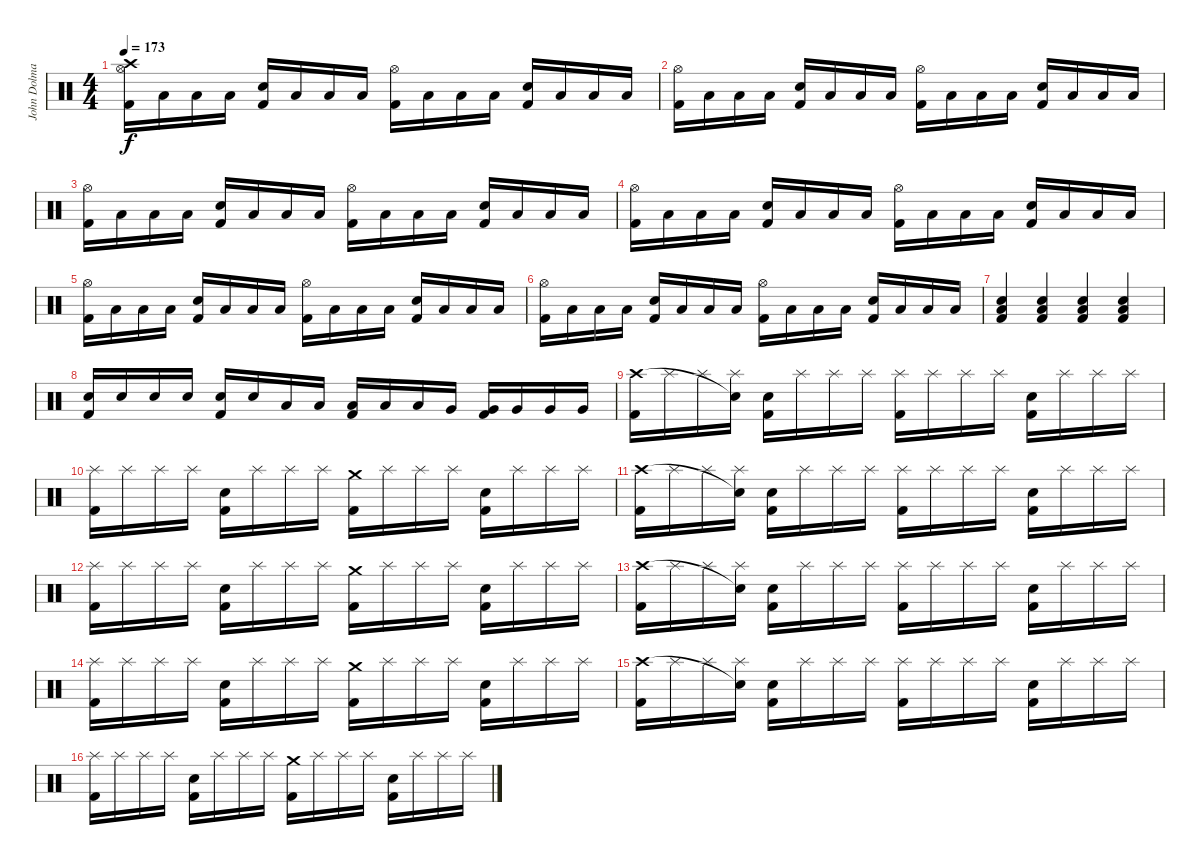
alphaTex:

\track ("John Dolmayan" "John Dolma") {instrument percussion}
\staff {score}
\articulation defaults
\ts (4 4)
\tempo 173
\clef neutral
\ks c
("Hi-Hat (open)" "Kick (hit) 2" "Crash high (hit)").16{dy f} "Low Tom (hit)".16 "Low Tom (hit)".16 "Low Tom (hit)".16 ("Electric Snare (hit)" "Kick (hit) 2").16 "Low Tom (hit)".16 "Low Tom (hit)".16 "Low Tom (hit)".16 ("Hi-Hat (open)" "Kick (hit) 2").16 "Low Tom (hit)".16 "Low Tom (hit)".16 "Low Tom (hit)".16 ("Electric Snare (hit)" "Kick (hit) 2").16 "Low Tom (hit)".16 "Low Tom (hit)".16 "Low Tom (hit)".16 |
("Hi-Hat (open)" "Kick (hit) 2").16 "Low Tom (hit)".16 "Low Tom (hit)".16 "Low Tom (hit)".16 ("Electric Snare (hit)" "Kick (hit) 2").16 "Low Tom (hit)".16 "Low Tom (hit)".16 "Low Tom (hit)".16 ("Hi-Hat (open)" "Kick (hit) 2").16 "Low Tom (hit)".16 "Low Tom (hit)".16 "Low Tom (hit)".16 ("Electric Snare (hit)" "Kick (hit) 2").16 "Low Tom (hit)".16 "Low Tom (hit)".16 "Low Tom (hit)".16 |
("Hi-Hat (open)" "Kick (hit) 2").16 "Low Tom (hit)".16 "Low Tom (hit)".16 "Low Tom (hit)".16 ("Electric Snare (hit)" "Kick (hit) 2").16 "Low Tom (hit)".16 "Low Tom (hit)".16 "Low Tom (hit)".16 ("Hi-Hat (open)" "Kick (hit) 2").16 "Low Tom (hit)".16 "Low Tom (hit)".16 "Low Tom (hit)".16 ("Electric Snare (hit)" "Kick (hit) 2").16 "Low Tom (hit)".16 "Low Tom (hit)".16 "Low Tom (hit)".16 |
("Hi-Hat (open)" "Kick (hit) 2").16 "Low Tom (hit)".16 "Low Tom (hit)".16 "Low Tom (hit)".16 ("Electric Snare (hit)" "Kick (hit) 2").16 "Low Tom (hit)".16 "Low Tom (hit)".16 "Low Tom (hit)".16 ("Hi-Hat (open)" "Kick (hit) 2").16 "Low Tom (hit)".16 "Low Tom (hit)".16 "Low Tom (hit)".16 ("Electric Snare (hit)" "Kick (hit) 2").16 "Low Tom (hit)".16 "Low Tom (hit)".16 "Low Tom (hit)".16 |
("Hi-Hat (open)" "Kick (hit) 2").16 "Low Tom (hit)".16 "Low Tom (hit)".16 "Low Tom (hit)".16 ("Electric Snare (hit)" "Kick (hit) 2").16 "Low Tom (hit)".16 "Low Tom (hit)".16 "Low Tom (hit)".16 ("Hi-Hat (open)" "Kick (hit) 2").16 "Low Tom (hit)".16 "Low Tom (hit)".16 "Low Tom (hit)".16 ("Electric Snare (hit)" "Kick (hit) 2").16 "Low Tom (hit)".16 "Low Tom (hit)".16 "Low Tom (hit)".16 |
("Hi-Hat (open)" "Kick (hit) 2").16 "Low Tom (hit)".16 "Low Tom (hit)".16 "Low Tom (hit)".16 ("Electric Snare (hit)" "Kick (hit) 2").16 "Low Tom (hit)".16 "Low Tom (hit)".16 "Low Tom (hit)".16 ("Hi-Hat (open)" "Kick (hit) 2").16 "Low Tom (hit)".16 "Low Tom (hit)".16 "Low Tom (hit)".16 ("Electric Snare (hit)" "Kick (hit) 2").16 "Low Tom (hit)".16 "Low Tom (hit)".16 "Low Tom (hit)".16 |
("Kick (hit) 2" "Low Tom (hit)" "Electric Snare (hit)").4 ("Kick (hit) 2" "Low Tom (hit)" "Electric Snare (hit)").4 ("Kick (hit) 2" "Low Tom (hit)" "Electric Snare (hit)").4 ("Kick (hit) 2" "Low Tom (hit)" "Electric Snare (hit)").4 |
("Electric Snare (hit)" "Kick (hit) 2").16 "Electric Snare (hit)".16 "Electric Snare (hit)".16 "Electric Snare (hit)".16 ("Electric Snare (hit)" "Kick (hit) 2").16 "Electric Snare (hit)".16 "Low Tom (hit)".16 "Low Tom (hit)".16 ("Kick (hit) 2" "Low Tom (hit)").16 "Low Tom (hit)".16 "Low Tom (hit)".16 "Very Low Tom (hit)".16 ("Kick (hit) 2" "Very Low Tom (hit)").16 "Very Low Tom (hit)".16 "Very Low Tom (hit)".16 "Very Low Tom (hit)".16 |
("Kick (hit) 2" "Crash high (hit)").16 "Splash (hit)".16 "Splash (hit)".16 ("Splash (hit)" "Snare (hit)"{t}).16 ("Electric Snare (hit)" "Kick (hit) 2").16 "Splash (hit)".16 "Splash (hit)".16 "Splash (hit)".16 ("Kick (hit) 2" "Splash (hit)").16 "Splash (hit)".16 "Splash (hit)".16 "Splash (hit)".16 ("Electric Snare (hit)" "Kick (hit) 2").16 "Splash (hit)".16 "Splash (hit)".16 "Splash (hit)".16 |
("Kick (hit) 2" "Splash (hit)").16 "Splash (hit)".16 "Splash (hit)".16 "Splash (hit)".16 ("Electric Snare (hit)" "Kick (hit) 2").16 "Splash (hit)".16 "Splash (hit)".16 "Splash (hit)".16 ("Kick (hit) 2" "Crash medium (hit)").16 "Splash (hit)".16 "Splash (hit)".16 "Splash (hit)".16 ("Electric Snare (hit)" "Kick (hit) 2").16 "Splash (hit)".16 "Splash (hit)".16 "Splash (hit)".16 |
("Kick (hit) 2" "Crash high (hit)").16 "Splash (hit)".16 "Splash (hit)".16 ("Splash (hit)" "Snare (hit)"{t}).16 ("Electric Snare (hit)" "Kick (hit) 2").16 "Splash (hit)".16 "Splash (hit)".16 "Splash (hit)".16 ("Kick (hit) 2" "Splash (hit)").16 "Splash (hit)".16 "Splash (hit)".16 "Splash (hit)".16 ("Electric Snare (hit)" "Kick (hit) 2").16 "Splash (hit)".16 "Splash (hit)".16 "Splash (hit)".16 |
("Kick (hit) 2" "Splash (hit)").16 "Splash (hit)".16 "Splash (hit)".16 "Splash (hit)".16 ("Electric Snare (hit)" "Kick (hit) 2").16 "Splash (hit)".16 "Splash (hit)".16 "Splash (hit)".16 ("Kick (hit) 2" "Crash medium (hit)").16 "Splash (hit)".16 "Splash (hit)".16 "Splash (hit)".16 ("Electric Snare (hit)" "Kick (hit) 2").16 "Splash (hit)".16 "Splash (hit)".16 "Splash (hit)".16 |
("Kick (hit) 2" "Crash high (hit)").16 "Splash (hit)".16 "Splash (hit)".16 ("Splash (hit)" "Snare (hit)"{t}).16 ("Electric Snare (hit)" "Kick (hit) 2").16 "Splash (hit)".16 "Splash (hit)".16 "Splash (hit)".16 ("Kick (hit) 2" "Splash (hit)").16 "Splash (hit)".16 "Splash (hit)".16 "Splash (hit)".16 ("Electric Snare (hit)" "Kick (hit) 2").16 "Splash (hit)".16 "Splash (hit)".16 "Splash (hit)".16 |
("Kick (hit) 2" "Splash (hit)").16 "Splash (hit)".16 "Splash (hit)".16 "Splash (hit)".16 ("Electric Snare (hit)" "Kick (hit) 2").16 "Splash (hit)".16 "Splash (hit)".16 "Splash (hit)".16 ("Kick (hit) 2" "Crash medium (hit)").16 "Splash (hit)".16 "Splash (hit)".16 "Splash (hit)".16 ("Electric Snare (hit)" "Kick (hit) 2").16 "Splash (hit)".16 "Splash (hit)".16 "Splash (hit)".16 |
("Kick (hit) 2" "Crash high (hit)").16 "Splash (hit)".16 "Splash (hit)".16 ("Splash (hit)" "Snare (hit)"{t}).16 ("Electric Snare (hit)" "Kick (hit) 2").16 "Splash (hit)".16 "Splash (hit)".16 "Splash (hit)".16 ("Kick (hit) 2" "Splash (hit)").16 "Splash (hit)".16 "Splash (hit)".16 "Splash (hit)".16 ("Electric Snare (hit)" "Kick (hit) 2").16 "Splash (hit)".16 "Splash (hit)".16 "Splash (hit)".16 |
("Kick (hit) 2" "Splash (hit)").16 "Splash (hit)".16 "Splash (hit)".16 "Splash (hit)".16 ("Electric Snare (hit)" "Kick (hit) 2").16 "Splash (hit)".16 "Splash (hit)".16 "Splash (hit)".16 ("Kick (hit) 2" "Crash medium (hit)").16 "Splash (hit)".16 "Splash (hit)".16 "Splash (hit)".16 ("Electric Snare (hit)" "Kick (hit) 2").16 "Splash (hit)".16 "Splash (hit)".16 "Splash (hit)".16
